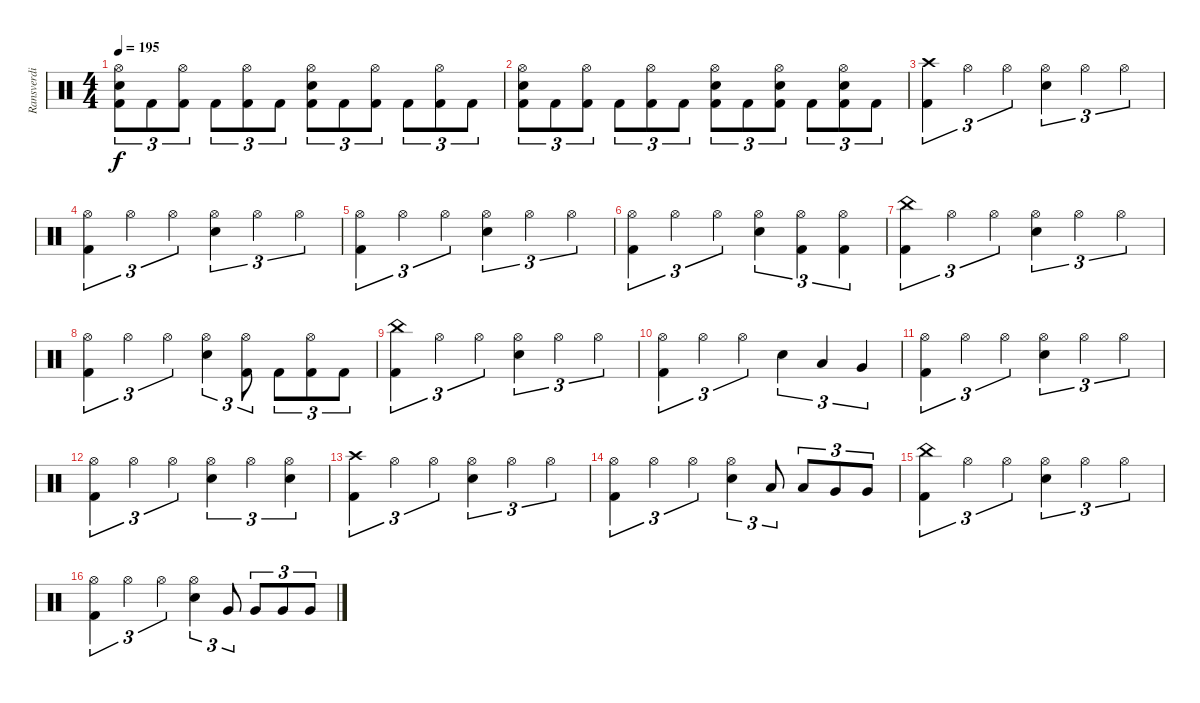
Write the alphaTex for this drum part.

\track ("Ransverdi" "Ransverdi") {instrument percussion}
\staff {score}
\articulation defaults
\ts (4 4)
\tempo 195
\clef neutral
\ks c
("Hi-Hat (open)" "Snare (hit) 2" "Kick (hit) 2").8{tu (3 2) dy f} "Kick (hit) 2".8{tu (3 2)} ("Hi-Hat (open)" "Kick (hit) 2").8{tu (3 2)} "Kick (hit) 2".8{tu (3 2)} ("Hi-Hat (open)" "Kick (hit) 2").8{tu (3 2)} "Kick (hit) 2".8{tu (3 2)} ("Hi-Hat (open)" "Snare (hit) 2" "Kick (hit) 2").8{tu (3 2)} "Kick (hit) 2".8{tu (3 2)} ("Hi-Hat (open)" "Kick (hit) 2").8{tu (3 2)} "Kick (hit) 2".8{tu (3 2)} ("Hi-Hat (open)" "Kick (hit) 2").8{tu (3 2)} "Kick (hit) 2".8{tu (3 2)} |
("Hi-Hat (open)" "Snare (hit) 2" "Kick (hit) 2").8{tu (3 2)} "Kick (hit) 2".8{tu (3 2)} ("Hi-Hat (open)" "Kick (hit) 2").8{tu (3 2)} "Kick (hit) 2".8{tu (3 2)} ("Hi-Hat (open)" "Kick (hit) 2").8{tu (3 2)} "Kick (hit) 2".8{tu (3 2)} ("Hi-Hat (open)" "Snare (hit) 2" "Kick (hit) 2").8{tu (3 2)} "Kick (hit) 2".8{tu (3 2)} ("Hi-Hat (open)" "Snare (hit) 2" "Kick (hit) 2").8{tu (3 2)} "Kick (hit) 2".8{tu (3 2)} ("Hi-Hat (open)" "Snare (hit) 2" "Kick (hit) 2").8{tu (3 2)} "Kick (hit) 2".8{tu (3 2)} |
("Crash high (hit)" "Kick (hit) 2").4{tu (3 2)} "Hi-Hat (open)".4{tu (3 2)} "Hi-Hat (open)".4{tu (3 2)} ("Hi-Hat (open)" "Snare (hit) 2").4{tu (3 2)} "Hi-Hat (open)".4{tu (3 2)} "Hi-Hat (open)".4{tu (3 2)} |
("Hi-Hat (open)" "Kick (hit) 2").4{tu (3 2)} "Hi-Hat (open)".4{tu (3 2)} "Hi-Hat (open)".4{tu (3 2)} ("Hi-Hat (open)" "Snare (hit) 2").4{tu (3 2)} "Hi-Hat (open)".4{tu (3 2)} "Hi-Hat (open)".4{tu (3 2)} |
("Hi-Hat (open)" "Kick (hit) 2").4{tu (3 2)} "Hi-Hat (open)".4{tu (3 2)} "Hi-Hat (open)".4{tu (3 2)} ("Hi-Hat (open)" "Snare (hit) 2").4{tu (3 2)} "Hi-Hat (open)".4{tu (3 2)} "Hi-Hat (open)".4{tu (3 2)} |
("Hi-Hat (open)" "Kick (hit) 2").4{tu (3 2)} "Hi-Hat (open)".4{tu (3 2)} "Hi-Hat (open)".4{tu (3 2)} ("Hi-Hat (open)" "Snare (hit) 2").4{tu (3 2)} ("Hi-Hat (open)" "Kick (hit) 2").4{tu (3 2)} ("Hi-Hat (open)" "Kick (hit) 2").4{tu (3 2)} |
("China (hit)" "Kick (hit) 2").4{tu (3 2)} "Hi-Hat (open)".4{tu (3 2)} "Hi-Hat (open)".4{tu (3 2)} ("Hi-Hat (open)" "Snare (hit) 2").4{tu (3 2)} "Hi-Hat (open)".4{tu (3 2)} "Hi-Hat (open)".4{tu (3 2)} |
("Hi-Hat (open)" "Kick (hit) 2").4{tu (3 2)} "Hi-Hat (open)".4{tu (3 2)} "Hi-Hat (open)".4{tu (3 2)} ("Hi-Hat (open)" "Snare (hit) 2").4{tu (3 2)} ("Hi-Hat (open)" "Kick (hit) 2").8{tu (3 2)} "Kick (hit) 2".8{tu (3 2)} ("Hi-Hat (open)" "Kick (hit) 2").8{tu (3 2)} "Kick (hit) 2".8{tu (3 2)} |
("China (hit)" "Kick (hit) 2").4{tu (3 2)} "Hi-Hat (open)".4{tu (3 2)} "Hi-Hat (open)".4{tu (3 2)} ("Hi-Hat (open)" "Snare (hit) 2").4{tu (3 2)} "Hi-Hat (open)".4{tu (3 2)} "Hi-Hat (open)".4{tu (3 2)} |
("Hi-Hat (open)" "Kick (hit) 2").4{tu (3 2)} "Hi-Hat (open)".4{tu (3 2)} "Hi-Hat (open)".4{tu (3 2)} "Snare (hit) 2".4{tu (3 2)} "Low Tom (hit)".4{tu (3 2)} "Very Low Tom (hit)".4{tu (3 2)} |
("Hi-Hat (open)" "Kick (hit) 2").4{tu (3 2)} "Hi-Hat (open)".4{tu (3 2)} "Hi-Hat (open)".4{tu (3 2)} ("Hi-Hat (open)" "Snare (hit) 2").4{tu (3 2)} "Hi-Hat (open)".4{tu (3 2)} "Hi-Hat (open)".4{tu (3 2)} |
("Hi-Hat (open)" "Kick (hit) 2").4{tu (3 2)} "Hi-Hat (open)".4{tu (3 2)} "Hi-Hat (open)".4{tu (3 2)} ("Hi-Hat (open)" "Snare (hit) 2").4{tu (3 2)} "Hi-Hat (open)".4{tu (3 2)} ("Hi-Hat (open)" "Snare (hit) 2").4{tu (3 2)} |
("Crash high (hit)" "Kick (hit) 2").4{tu (3 2)} "Hi-Hat (open)".4{tu (3 2)} "Hi-Hat (open)".4{tu (3 2)} ("Hi-Hat (open)" "Snare (hit) 2").4{tu (3 2)} "Hi-Hat (open)".4{tu (3 2)} "Hi-Hat (open)".4{tu (3 2)} |
("Hi-Hat (open)" "Kick (hit) 2").4{tu (3 2)} "Hi-Hat (open)".4{tu (3 2)} "Hi-Hat (open)".4{tu (3 2)} ("Hi-Hat (open)" "Snare (hit) 2").4{tu (3 2)} "Low Tom (hit)".8{tu (3 2)} "Low Tom (hit)".8{tu (3 2)} "Very Low Tom (hit)".8{tu (3 2)} "Very Low Tom (hit)".8{tu (3 2)} |
("China (hit)" "Kick (hit) 2").4{tu (3 2)} "Hi-Hat (open)".4{tu (3 2)} "Hi-Hat (open)".4{tu (3 2)} ("Hi-Hat (open)" "Snare (hit) 2").4{tu (3 2)} "Hi-Hat (open)".4{tu (3 2)} "Hi-Hat (open)".4{tu (3 2)} |
("Hi-Hat (open)" "Kick (hit) 2").4{tu (3 2)} "Hi-Hat (open)".4{tu (3 2)} "Hi-Hat (open)".4{tu (3 2)} ("Hi-Hat (open)" "Snare (hit) 2").4{tu (3 2)} "Very Low Tom (hit)".8{tu (3 2)} "Very Low Tom (hit)".8{tu (3 2)} "Very Low Tom (hit)".8{tu (3 2)} "Very Low Tom (hit)".8{tu (3 2)}
